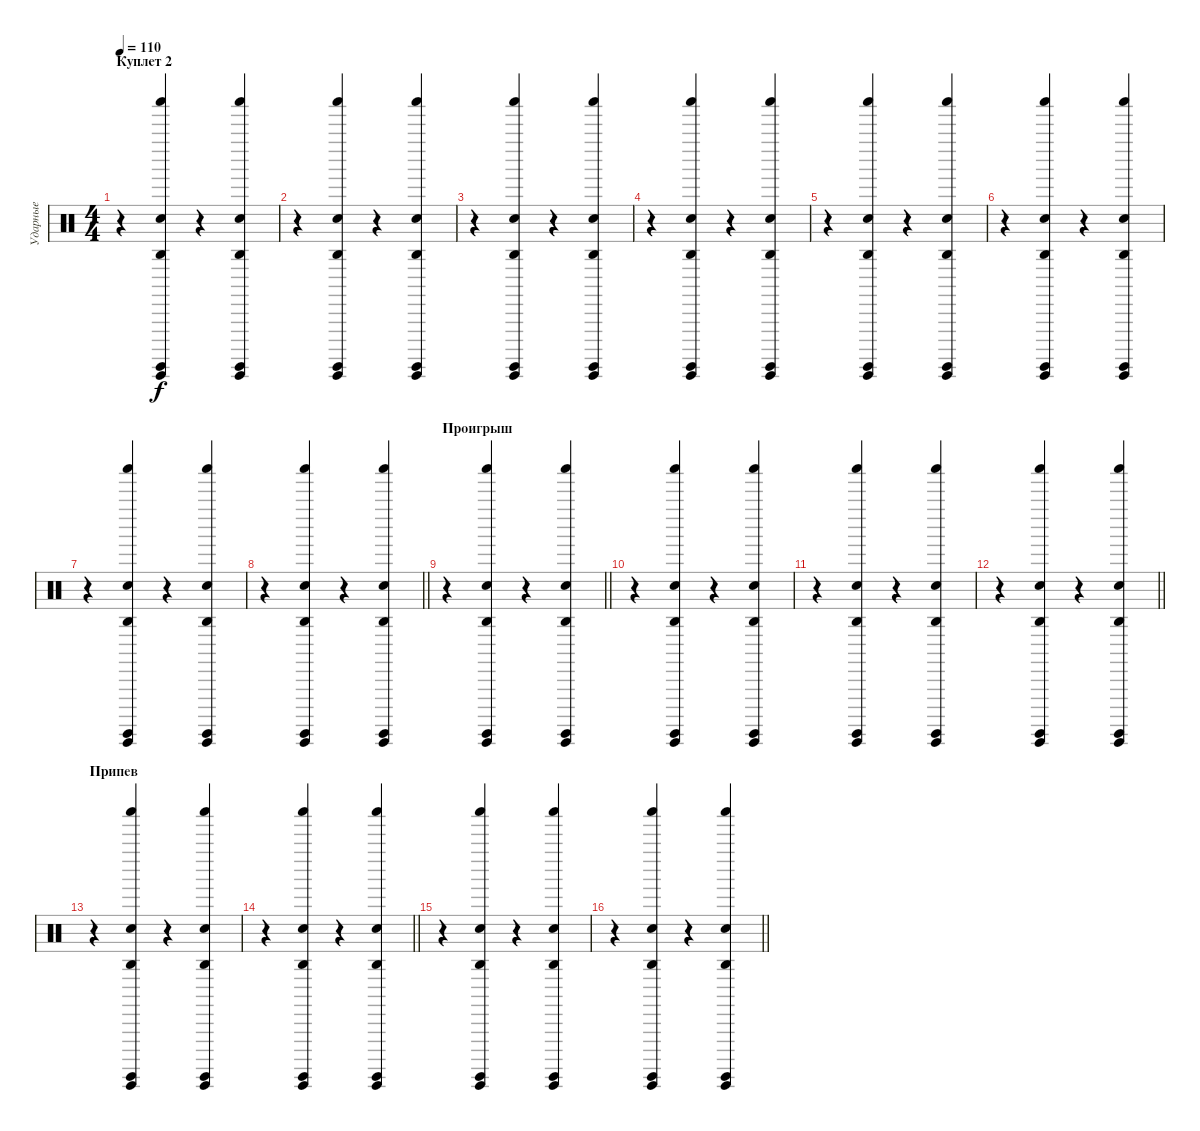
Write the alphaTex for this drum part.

\track ("Ударные" "Ударные") {instrument percussion}
\staff {score}
\articulation defaults
\ts (4 4)
\section ("" "Куплет 2")
\tempo 110
\clef neutral
\ks c
r.4{dy f} ("Agogo high (hit)" "Hand Clap (hit)" "Guiro (hit)" "Shaker (hit)" "Surdo (hit)").4 r.4 ("Agogo high (hit)" "Hand Clap (hit)" "Guiro (hit)" "Shaker (hit)" "Surdo (hit)").4 |
r.4 ("Agogo high (hit)" "Hand Clap (hit)" "Guiro (hit)" "Shaker (hit)" "Surdo (hit)").4 r.4 ("Agogo high (hit)" "Hand Clap (hit)" "Guiro (hit)" "Shaker (hit)" "Surdo (hit)").4 |
r.4 ("Agogo high (hit)" "Hand Clap (hit)" "Guiro (hit)" "Shaker (hit)" "Surdo (hit)").4 r.4 ("Agogo high (hit)" "Hand Clap (hit)" "Guiro (hit)" "Shaker (hit)" "Surdo (hit)").4 |
r.4 ("Agogo high (hit)" "Hand Clap (hit)" "Guiro (hit)" "Shaker (hit)" "Surdo (hit)").4 r.4 ("Agogo high (hit)" "Hand Clap (hit)" "Guiro (hit)" "Shaker (hit)" "Surdo (hit)").4 |
r.4 ("Agogo high (hit)" "Hand Clap (hit)" "Guiro (hit)" "Shaker (hit)" "Surdo (hit)").4 r.4 ("Agogo high (hit)" "Hand Clap (hit)" "Guiro (hit)" "Shaker (hit)" "Surdo (hit)").4 |
r.4 ("Agogo high (hit)" "Hand Clap (hit)" "Guiro (hit)" "Shaker (hit)" "Surdo (hit)").4 r.4 ("Agogo high (hit)" "Hand Clap (hit)" "Guiro (hit)" "Shaker (hit)" "Surdo (hit)").4 |
r.4 ("Agogo high (hit)" "Hand Clap (hit)" "Guiro (hit)" "Shaker (hit)" "Surdo (hit)").4 r.4 ("Agogo high (hit)" "Hand Clap (hit)" "Guiro (hit)" "Shaker (hit)" "Surdo (hit)").4 |
\barLineRight lightlight
r.4 ("Agogo high (hit)" "Hand Clap (hit)" "Guiro (hit)" "Shaker (hit)" "Surdo (hit)").4 r.4 ("Agogo high (hit)" "Hand Clap (hit)" "Guiro (hit)" "Shaker (hit)" "Surdo (hit)").4 |
\section ("" "Проигрыш")
\barLineRight lightlight
r.4 ("Agogo high (hit)" "Hand Clap (hit)" "Guiro (hit)" "Shaker (hit)" "Surdo (hit)").4 r.4 ("Agogo high (hit)" "Hand Clap (hit)" "Guiro (hit)" "Shaker (hit)" "Surdo (hit)").4 |
r.4 ("Agogo high (hit)" "Hand Clap (hit)" "Guiro (hit)" "Shaker (hit)" "Surdo (hit)").4 r.4 ("Agogo high (hit)" "Hand Clap (hit)" "Guiro (hit)" "Shaker (hit)" "Surdo (hit)").4 |
r.4 ("Agogo high (hit)" "Hand Clap (hit)" "Guiro (hit)" "Shaker (hit)" "Surdo (hit)").4 r.4 ("Agogo high (hit)" "Hand Clap (hit)" "Guiro (hit)" "Shaker (hit)" "Surdo (hit)").4 |
\barLineRight lightlight
r.4 ("Agogo high (hit)" "Hand Clap (hit)" "Guiro (hit)" "Shaker (hit)" "Surdo (hit)").4 r.4 ("Agogo high (hit)" "Hand Clap (hit)" "Guiro (hit)" "Shaker (hit)" "Surdo (hit)").4 |
\section ("" "Припев")
r.4 ("Agogo high (hit)" "Hand Clap (hit)" "Guiro (hit)" "Shaker (hit)" "Surdo (hit)").4 r.4 ("Agogo high (hit)" "Hand Clap (hit)" "Guiro (hit)" "Shaker (hit)" "Surdo (hit)").4 |
\barLineRight lightlight
r.4 ("Agogo high (hit)" "Hand Clap (hit)" "Guiro (hit)" "Shaker (hit)" "Surdo (hit)").4 r.4 ("Agogo high (hit)" "Hand Clap (hit)" "Guiro (hit)" "Shaker (hit)" "Surdo (hit)").4 |
r.4 ("Agogo high (hit)" "Hand Clap (hit)" "Guiro (hit)" "Shaker (hit)" "Surdo (hit)").4 r.4 ("Agogo high (hit)" "Hand Clap (hit)" "Guiro (hit)" "Shaker (hit)" "Surdo (hit)").4 |
\barLineRight lightlight
r.4 ("Agogo high (hit)" "Hand Clap (hit)" "Guiro (hit)" "Shaker (hit)" "Surdo (hit)").4 r.4 ("Agogo high (hit)" "Hand Clap (hit)" "Guiro (hit)" "Shaker (hit)" "Surdo (hit)").4
